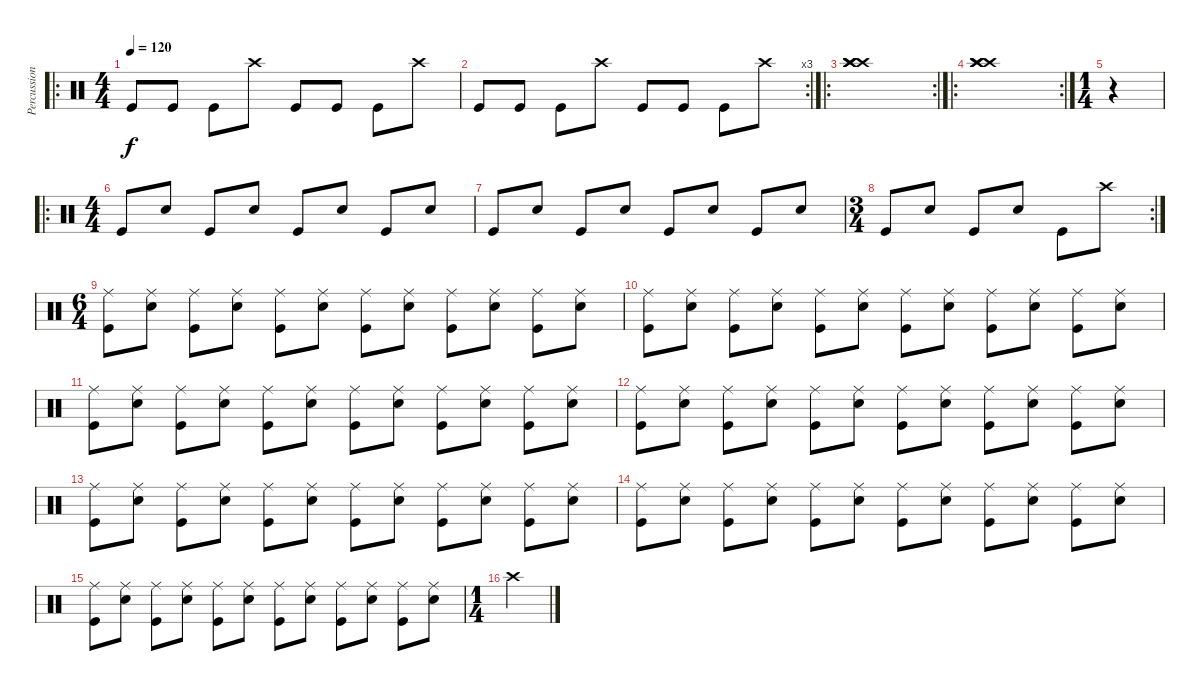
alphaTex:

\track ("Percussion" "Percussion") {instrument percussion}
\staff {score}
\articulation defaults
\ro
\ts (4 4)
\tempo 120
\clef neutral
\ks c "Kick (hit)".8{dy f} "Kick (hit)".8 "Kick (hit)".8 "Crash high (hit)".8 "Kick (hit)".8 "Kick (hit)".8 "Kick (hit)".8 "Crash high (hit)".8
|
\rc 3 "Kick (hit)".8 "Kick (hit)".8 "Kick (hit)".8 "Crash high (hit)".8 "Kick (hit)".8 "Kick (hit)".8 "Kick (hit)".8 "Crash high (hit)".8
|
\ro
\rc 2
("Crash high (hit)" "Crash high (hit)" "Crash high (hit)" "Crash high (hit)").1 |
\ro
\rc 2
("Crash high (hit)" "Crash high (hit)" "Crash high (hit)" "Crash high (hit)").1 |
\ts (1 4)
r.4 |
\ro
\ts (4 4)
"Kick (hit)".8 "Snare (hit) 2".8 "Kick (hit)".8 "Snare (hit) 2".8 "Kick (hit)".8 "Snare (hit) 2".8 "Kick (hit)".8 "Snare (hit) 2".8 |
"Kick (hit)".8 "Snare (hit) 2".8 "Kick (hit)".8 "Snare (hit) 2".8 "Kick (hit)".8 "Snare (hit) 2".8 "Kick (hit)".8 "Snare (hit) 2".8 |
\rc 2
\ts (3 4)
"Kick (hit)".8 "Snare (hit) 2".8 "Kick (hit)".8 "Snare (hit) 2".8 "Kick (hit)".8 "Crash high (hit)".8 |
\ts (6 4)
("Ride (middle)" "Kick (hit)").8 ("Ride (middle)" "Snare (hit) 2").8 ("Ride (middle)" "Kick (hit)").8 ("Ride (middle)" "Snare (hit) 2").8 ("Ride (middle)" "Kick (hit)").8 ("Ride (middle)" "Snare (hit) 2").8 ("Ride (middle)" "Kick (hit)").8 ("Ride (middle)" "Snare (hit) 2").8 ("Ride (middle)" "Kick (hit)").8 ("Ride (middle)" "Snare (hit) 2").8 ("Ride (middle)" "Kick (hit)").8 ("Ride (middle)" "Snare (hit) 2").8 |
("Ride (middle)" "Kick (hit)").8 ("Ride (middle)" "Snare (hit) 2").8 ("Ride (middle)" "Kick (hit)").8 ("Ride (middle)" "Snare (hit) 2").8 ("Ride (middle)" "Kick (hit)").8 ("Ride (middle)" "Snare (hit) 2").8 ("Ride (middle)" "Kick (hit)").8 ("Ride (middle)" "Snare (hit) 2").8 ("Ride (middle)" "Kick (hit)").8 ("Ride (middle)" "Snare (hit) 2").8 ("Ride (middle)" "Kick (hit)").8 ("Ride (middle)" "Snare (hit) 2").8 |
("Ride (middle)" "Kick (hit)").8 ("Ride (middle)" "Snare (hit) 2").8 ("Ride (middle)" "Kick (hit)").8 ("Ride (middle)" "Snare (hit) 2").8 ("Ride (middle)" "Kick (hit)").8 ("Ride (middle)" "Snare (hit) 2").8 ("Ride (middle)" "Kick (hit)").8 ("Ride (middle)" "Snare (hit) 2").8 ("Ride (middle)" "Kick (hit)").8 ("Ride (middle)" "Snare (hit) 2").8 ("Ride (middle)" "Kick (hit)").8 ("Ride (middle)" "Snare (hit) 2").8 |
("Ride (middle)" "Kick (hit)").8 ("Ride (middle)" "Snare (hit) 2").8 ("Ride (middle)" "Kick (hit)").8 ("Ride (middle)" "Snare (hit) 2").8 ("Ride (middle)" "Kick (hit)").8 ("Ride (middle)" "Snare (hit) 2").8 ("Ride (middle)" "Kick (hit)").8 ("Ride (middle)" "Snare (hit) 2").8 ("Ride (middle)" "Kick (hit)").8 ("Ride (middle)" "Snare (hit) 2").8 ("Ride (middle)" "Kick (hit)").8 ("Ride (middle)" "Snare (hit) 2").8 |
("Ride (middle)" "Kick (hit)").8 ("Ride (middle)" "Snare (hit) 2").8 ("Ride (middle)" "Kick (hit)").8 ("Ride (middle)" "Snare (hit) 2").8 ("Ride (middle)" "Kick (hit)").8 ("Ride (middle)" "Snare (hit) 2").8 ("Ride (middle)" "Kick (hit)").8 ("Ride (middle)" "Snare (hit) 2").8 ("Ride (middle)" "Kick (hit)").8 ("Ride (middle)" "Snare (hit) 2").8 ("Ride (middle)" "Kick (hit)").8 ("Ride (middle)" "Snare (hit) 2").8 |
("Ride (middle)" "Kick (hit)").8 ("Ride (middle)" "Snare (hit) 2").8 ("Ride (middle)" "Kick (hit)").8 ("Ride (middle)" "Snare (hit) 2").8 ("Ride (middle)" "Kick (hit)").8 ("Ride (middle)" "Snare (hit) 2").8 ("Ride (middle)" "Kick (hit)").8 ("Ride (middle)" "Snare (hit) 2").8 ("Ride (middle)" "Kick (hit)").8 ("Ride (middle)" "Snare (hit) 2").8 ("Ride (middle)" "Kick (hit)").8 ("Ride (middle)" "Snare (hit) 2").8 |
("Ride (middle)" "Kick (hit)").8 ("Ride (middle)" "Snare (hit) 2").8 ("Ride (middle)" "Kick (hit)").8 ("Ride (middle)" "Snare (hit) 2").8 ("Ride (middle)" "Kick (hit)").8 ("Ride (middle)" "Snare (hit) 2").8 ("Ride (middle)" "Kick (hit)").8 ("Ride (middle)" "Snare (hit) 2").8 ("Ride (middle)" "Kick (hit)").8 ("Ride (middle)" "Snare (hit) 2").8 ("Ride (middle)" "Kick (hit)").8 ("Ride (middle)" "Snare (hit) 2").8 |
\ts (1 4)
"Crash high (hit)".4
